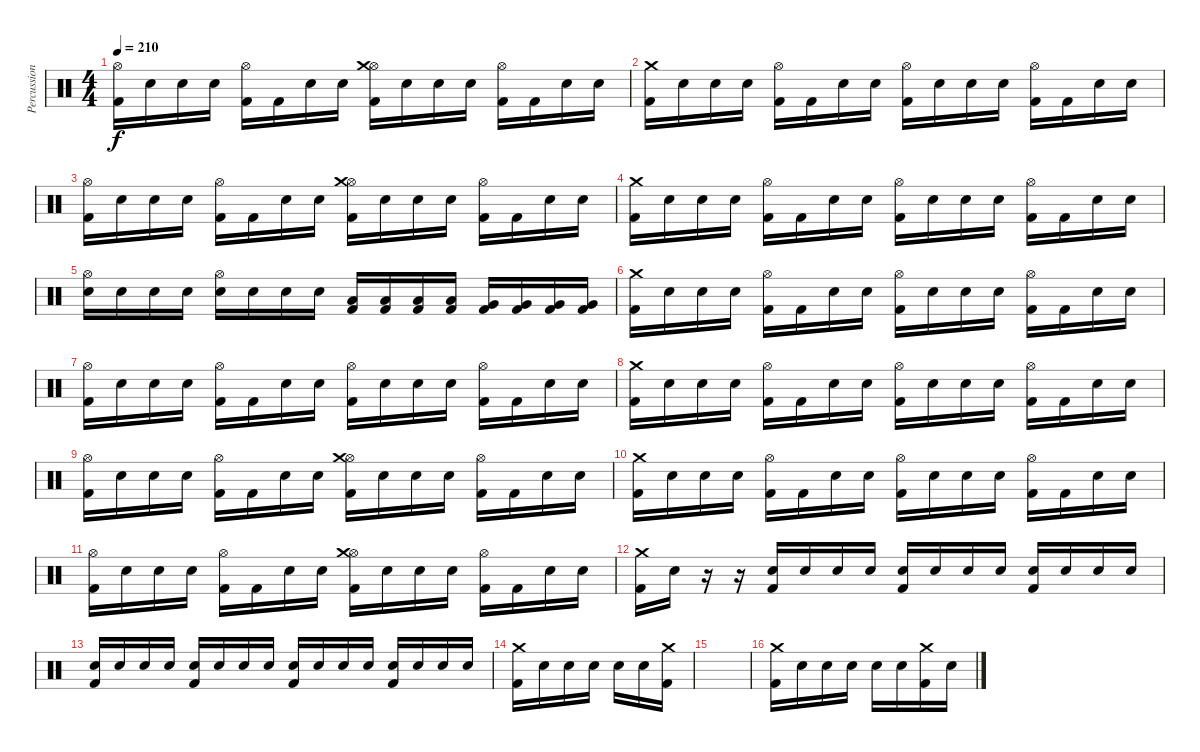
\track ("Percussion" "Percussion") {instrument percussion}
\staff {score}
\articulation defaults
\ts (4 4)
\tempo 210
\clef neutral
\ks c
("Kick (hit) 2" "Hi-Hat (open)").16{dy f} "Snare (hit)".16 "Snare (hit) 2".16 "Snare (hit)".16 ("Kick (hit) 2" "Hi-Hat (open)").16 "Kick (hit) 2".16 "Snare (hit) 2".16 "Snare (hit)".16 ("Kick (hit) 2" "Hi-Hat (open)" "Crash medium (hit)").16 "Snare (hit)".16 "Snare (hit) 2".16 "Snare (hit)".16 ("Kick (hit) 2" "Hi-Hat (open)").16 "Kick (hit) 2".16 "Snare (hit) 2".16 "Snare (hit)".16 |
("Kick (hit) 2" "Crash medium (hit)").16 "Snare (hit)".16 "Snare (hit) 2".16 "Snare (hit)".16 ("Kick (hit) 2" "Hi-Hat (open)").16 "Kick (hit) 2".16 "Snare (hit) 2".16 "Snare (hit)".16 ("Kick (hit) 2" "Hi-Hat (open)").16 "Snare (hit)".16 "Snare (hit) 2".16 "Snare (hit)".16 ("Kick (hit) 2" "Hi-Hat (open)").16 "Kick (hit) 2".16 "Snare (hit) 2".16 "Snare (hit)".16 |
("Kick (hit) 2" "Hi-Hat (open)").16 "Snare (hit)".16 "Snare (hit) 2".16 "Snare (hit)".16 ("Kick (hit) 2" "Hi-Hat (open)").16 "Kick (hit) 2".16 "Snare (hit) 2".16 "Snare (hit)".16 ("Kick (hit) 2" "Hi-Hat (open)" "Crash medium (hit)").16 "Snare (hit)".16 "Snare (hit) 2".16 "Snare (hit)".16 ("Kick (hit) 2" "Hi-Hat (open)").16 "Kick (hit) 2".16 "Snare (hit) 2".16 "Snare (hit)".16 |
("Kick (hit) 2" "Crash medium (hit)").16 "Snare (hit)".16 "Snare (hit) 2".16 "Snare (hit)".16 ("Kick (hit) 2" "Hi-Hat (open)").16 "Kick (hit) 2".16 "Snare (hit) 2".16 "Snare (hit)".16 ("Kick (hit) 2" "Hi-Hat (open)").16 "Snare (hit)".16 "Snare (hit) 2".16 "Snare (hit)".16 ("Kick (hit) 2" "Hi-Hat (open)").16 "Kick (hit) 2".16 "Snare (hit) 2".16 "Snare (hit)".16 |
("Snare (hit) 2" "Hi-Hat (open)").16 "Snare (hit) 2".16 "Snare (hit) 2".16 "Snare (hit) 2".16 ("Snare (hit) 2" "Hi-Hat (open)").16 "Snare (hit) 2".16 "Snare (hit) 2".16 "Snare (hit) 2".16 ("Kick (hit) 2" "Low Tom (hit)").16 ("Kick (hit) 2" "Low Tom (hit)").16 ("Kick (hit) 2" "Low Tom (hit)").16 ("Kick (hit) 2" "Low Tom (hit)").16 ("Kick (hit) 2" "Very Low Tom (hit)").16 ("Kick (hit) 2" "Very Low Tom (hit)").16 ("Kick (hit) 2" "Very Low Tom (hit)").16 ("Kick (hit) 2" "Very Low Tom (hit)").16 |
("Kick (hit) 2" "Crash medium (hit)").16 "Snare (hit)".16 "Snare (hit) 2".16 "Snare (hit)".16 ("Kick (hit) 2" "Hi-Hat (open)").16 "Kick (hit) 2".16 "Snare (hit) 2".16 "Snare (hit)".16 ("Kick (hit) 2" "Hi-Hat (open)").16 "Snare (hit)".16 "Snare (hit) 2".16 "Snare (hit)".16 ("Kick (hit) 2" "Hi-Hat (open)").16 "Kick (hit) 2".16 "Snare (hit) 2".16 "Snare (hit)".16 |
("Kick (hit) 2" "Hi-Hat (open)").16 "Snare (hit)".16 "Snare (hit) 2".16 "Snare (hit)".16 ("Kick (hit) 2" "Hi-Hat (open)").16 "Kick (hit) 2".16 "Snare (hit) 2".16 "Snare (hit)".16 ("Kick (hit) 2" "Hi-Hat (open)").16 "Snare (hit)".16 "Snare (hit) 2".16 "Snare (hit)".16 ("Kick (hit) 2" "Hi-Hat (open)").16 "Kick (hit) 2".16 "Snare (hit) 2".16 "Snare (hit)".16 |
("Kick (hit) 2" "Crash medium (hit)").16 "Snare (hit)".16 "Snare (hit) 2".16 "Snare (hit)".16 ("Kick (hit) 2" "Hi-Hat (open)").16 "Kick (hit) 2".16 "Snare (hit) 2".16 "Snare (hit)".16 ("Kick (hit) 2" "Hi-Hat (open)").16 "Snare (hit)".16 "Snare (hit) 2".16 "Snare (hit)".16 ("Kick (hit) 2" "Hi-Hat (open)").16 "Kick (hit) 2".16 "Snare (hit) 2".16 "Snare (hit)".16 |
("Kick (hit) 2" "Hi-Hat (open)").16 "Snare (hit)".16 "Snare (hit) 2".16 "Snare (hit)".16 ("Kick (hit) 2" "Hi-Hat (open)").16 "Kick (hit) 2".16 "Snare (hit) 2".16 "Snare (hit)".16 ("Kick (hit) 2" "Hi-Hat (open)" "Crash medium (hit)").16 "Snare (hit)".16 "Snare (hit) 2".16 "Snare (hit)".16 ("Kick (hit) 2" "Hi-Hat (open)").16 "Kick (hit) 2".16 "Snare (hit) 2".16 "Snare (hit)".16 |
("Kick (hit) 2" "Crash medium (hit)").16 "Snare (hit)".16 "Snare (hit) 2".16 "Snare (hit)".16 ("Kick (hit) 2" "Hi-Hat (open)").16 "Kick (hit) 2".16 "Snare (hit) 2".16 "Snare (hit)".16 ("Kick (hit) 2" "Hi-Hat (open)").16 "Snare (hit)".16 "Snare (hit) 2".16 "Snare (hit)".16 ("Kick (hit) 2" "Hi-Hat (open)").16 "Kick (hit) 2".16 "Snare (hit) 2".16 "Snare (hit)".16 |
("Kick (hit) 2" "Hi-Hat (open)").16 "Snare (hit)".16 "Snare (hit) 2".16 "Snare (hit)".16 ("Kick (hit) 2" "Hi-Hat (open)").16 "Kick (hit) 2".16 "Snare (hit) 2".16 "Snare (hit)".16 ("Kick (hit) 2" "Hi-Hat (open)" "Crash medium (hit)").16 "Snare (hit)".16 "Snare (hit) 2".16 "Snare (hit)".16 ("Kick (hit) 2" "Hi-Hat (open)").16 "Kick (hit) 2".16 "Snare (hit) 2".16 "Snare (hit)".16 |
("Kick (hit) 2" "Crash medium (hit)").16 "Snare (hit)".16 r.16 r.16 ("Snare (hit) 2" "Kick (hit) 2").16 "Snare (hit) 2".16 "Snare (hit) 2".16 "Snare (hit) 2".16 ("Snare (hit) 2" "Kick (hit) 2").16 "Snare (hit) 2".16 "Snare (hit) 2".16 "Snare (hit) 2".16 ("Snare (hit) 2" "Kick (hit) 2").16 "Snare (hit) 2".16 "Snare (hit) 2".16 "Snare (hit) 2".16 |
("Snare (hit) 2" "Kick (hit) 2").16 "Snare (hit) 2".16 "Snare (hit) 2".16 "Snare (hit) 2".16 ("Snare (hit) 2" "Kick (hit) 2").16 "Snare (hit) 2".16 "Snare (hit) 2".16 "Snare (hit) 2".16 ("Snare (hit) 2" "Kick (hit) 2").16 "Snare (hit) 2".16 "Snare (hit) 2".16 "Snare (hit) 2".16 ("Snare (hit) 2" "Kick (hit) 2").16 "Snare (hit) 2".16 "Snare (hit) 2".16 "Snare (hit) 2".16 |
("Kick (hit) 2" "Crash medium (hit)").16 "Snare (hit)".16 "Snare (hit)".16 "Snare (hit)".16 "Snare (hit)".16 "Snare (hit)".16 ("Kick (hit) 2" "Crash medium (hit)").16 |
|
("Crash medium (hit)" "Kick (hit) 2").16 "Snare (hit)".16 "Snare (hit)".16 "Snare (hit)".16 "Snare (hit)".16 "Snare (hit)".16 ("Crash medium (hit)" "Kick (hit) 2").16 "Snare (hit)".16
